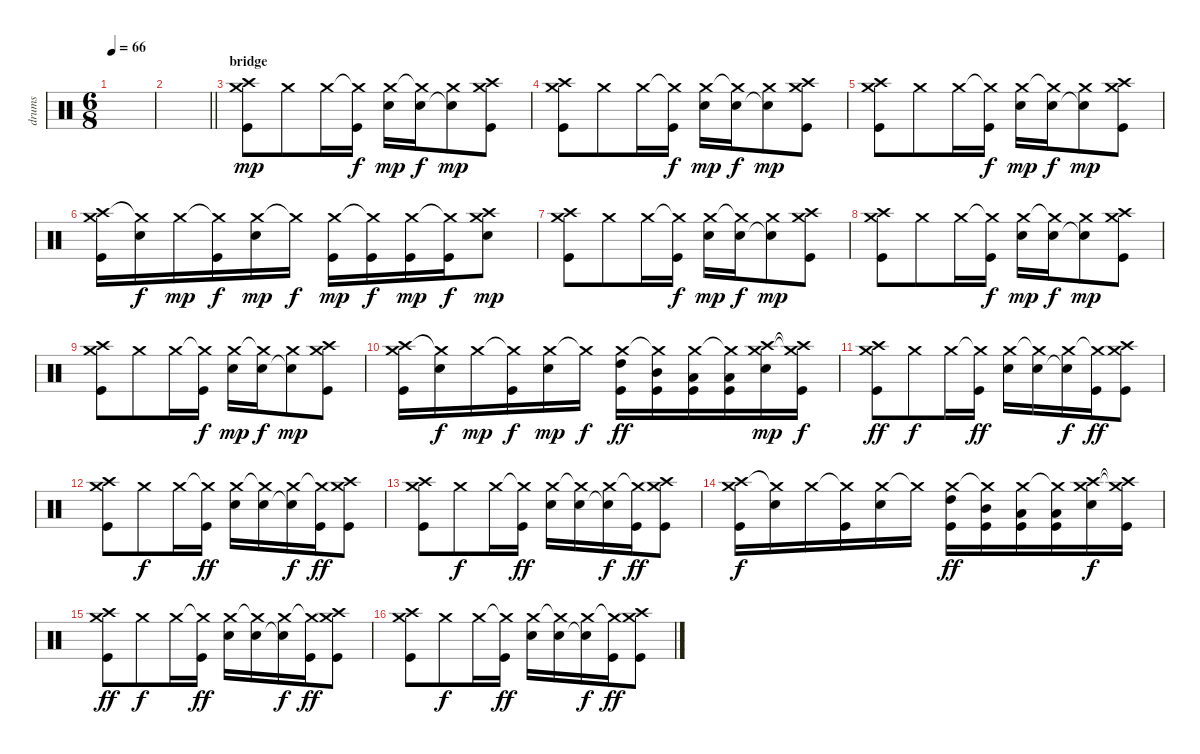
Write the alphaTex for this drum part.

\track ("drums" "drums") {instrument percussion}
\staff {score}
\articulation defaults
\ts (6 8)
\tempo 66
\clef neutral
\ks c
|
\barLineRight lightlight
|
\section ("" "bridge")
("Crash high (hit)" "Crash medium (hit)" "Kick (hit)").8{dy mp} "Crash medium (hit)".8 "Crash medium (hit)".16 ("Crash medium (hit)"{t} "Kick (hit)").16{dy f} ("Crash medium (hit)" "Electric Snare (hit)").16{dy mp} ("Crash medium (hit)"{t} "Electric Snare (hit)").16{dy f} ("Crash medium (hit)" "Electric Snare (hit)"{t}).8{dy mp} ("Crash high (hit)" "Crash medium (hit)" "Kick (hit)").8 |
("Crash high (hit)" "Crash medium (hit)" "Kick (hit)").8 "Crash medium (hit)".8 "Crash medium (hit)".16 ("Crash medium (hit)"{t} "Kick (hit)").16{dy f} ("Crash medium (hit)" "Electric Snare (hit)").16{dy mp} ("Crash medium (hit)"{t} "Electric Snare (hit)").16{dy f} ("Crash medium (hit)" "Electric Snare (hit)"{t}).8{dy mp} ("Crash high (hit)" "Crash medium (hit)" "Kick (hit)").8 |
("Crash high (hit)" "Crash medium (hit)" "Kick (hit)").8 "Crash medium (hit)".8 "Crash medium (hit)".16 ("Crash medium (hit)"{t} "Kick (hit)").16{dy f} ("Crash medium (hit)" "Electric Snare (hit)").16{dy mp} ("Crash medium (hit)"{t} "Electric Snare (hit)").16{dy f} ("Crash medium (hit)" "Electric Snare (hit)"{t}).8{dy mp} ("Crash high (hit)" "Crash medium (hit)" "Kick (hit)").8 |
("Crash high (hit)" "Crash medium (hit)" "Kick (hit)").16 ("Crash medium (hit)"{t} "Electric Snare (hit)").16{dy f} "Crash medium (hit)".16{dy mp} ("Crash medium (hit)"{t} "Kick (hit)").16{dy f} ("Crash medium (hit)" "Electric Snare (hit)").16{dy mp} "Crash medium (hit)"{t}.16{dy f} ("Crash medium (hit)" "Kick (hit)").16{dy mp} ("Crash medium (hit)"{t} "Kick (hit)").16{dy f} ("Crash medium (hit)" "Kick (hit)").16{dy mp} ("Crash medium (hit)"{t} "Kick (hit)").16{dy f} ("Crash high (hit)" "Crash medium (hit)" "Electric Snare (hit)").8{dy mp} |
("Crash high (hit)" "Crash medium (hit)" "Kick (hit)").8 "Crash medium (hit)".8 "Crash medium (hit)".16 ("Crash medium (hit)"{t} "Kick (hit)").16{dy f} ("Crash medium (hit)" "Electric Snare (hit)").16{dy mp} ("Crash medium (hit)"{t} "Electric Snare (hit)").16{dy f} ("Crash medium (hit)" "Electric Snare (hit)"{t}).8{dy mp} ("Crash high (hit)" "Crash medium (hit)" "Kick (hit)").8 |
("Crash high (hit)" "Crash medium (hit)" "Kick (hit)").8 "Crash medium (hit)".8 "Crash medium (hit)".16 ("Crash medium (hit)"{t} "Kick (hit)").16{dy f} ("Crash medium (hit)" "Electric Snare (hit)").16{dy mp} ("Crash medium (hit)"{t} "Electric Snare (hit)").16{dy f} ("Crash medium (hit)" "Electric Snare (hit)"{t}).8{dy mp} ("Crash high (hit)" "Crash medium (hit)" "Kick (hit)").8 |
("Crash high (hit)" "Crash medium (hit)" "Kick (hit)").8 "Crash medium (hit)".8 "Crash medium (hit)".16 ("Crash medium (hit)"{t} "Kick (hit)").16{dy f} ("Crash medium (hit)" "Electric Snare (hit)").16{dy mp} ("Crash medium (hit)"{t} "Electric Snare (hit)").16{dy f} ("Crash medium (hit)" "Electric Snare (hit)"{t}).8{dy mp} ("Crash high (hit)" "Crash medium (hit)" "Kick (hit)").8 |
("Crash high (hit)" "Crash medium (hit)" "Kick (hit)").16 ("Crash medium (hit)"{t} "Electric Snare (hit)").16{dy f} "Crash medium (hit)".16{dy mp} ("Crash medium (hit)"{t} "Kick (hit)").16{dy f} ("Crash medium (hit)" "Electric Snare (hit)").16{dy mp} "Crash medium (hit)"{t}.16{dy f} ("Crash medium (hit)" "High Tom (hit)" "Kick (hit)").16{dy ff} ("Crash medium (hit)"{t} "Mid Tom (hit)" "Kick (hit)").16 ("Crash medium (hit)" "Low Tom (hit)" "Kick (hit)").16 ("Crash medium (hit)"{t} "Low Floor Tom (hit)" "Kick (hit)").16 ("Crash high (hit)" "Crash medium (hit)" "Electric Snare (hit)").16{dy mp} ("Crash high (hit)"{t} "Crash medium (hit)"{t} "Kick (hit)").16{dy f} |
("Crash high (hit)" "Crash medium (hit)" "Kick (hit)").8{dy ff} "Crash medium (hit)".8{dy f} "Crash medium (hit)".16 ("Crash medium (hit)"{t} "Kick (hit)").16{dy ff} ("Crash medium (hit)" "Electric Snare (hit)").16 ("Crash medium (hit)"{t} "Electric Snare (hit)").16 ("Crash medium (hit)" "Electric Snare (hit)"{t}).16{dy f} ("Crash medium (hit)"{t} "Kick (hit)").16{dy ff} ("Crash high (hit)" "Crash medium (hit)" "Kick (hit)").8 |
("Crash high (hit)" "Crash medium (hit)" "Kick (hit)").8 "Crash medium (hit)".8{dy f} "Crash medium (hit)".16 ("Crash medium (hit)"{t} "Kick (hit)").16{dy ff} ("Crash medium (hit)" "Electric Snare (hit)").16 ("Crash medium (hit)"{t} "Electric Snare (hit)").16 ("Crash medium (hit)" "Electric Snare (hit)"{t}).16{dy f} ("Crash medium (hit)"{t} "Kick (hit)").16{dy ff} ("Crash high (hit)" "Crash medium (hit)" "Kick (hit)").8 |
("Crash high (hit)" "Crash medium (hit)" "Kick (hit)").8 "Crash medium (hit)".8{dy f} "Crash medium (hit)".16 ("Crash medium (hit)"{t} "Kick (hit)").16{dy ff} ("Crash medium (hit)" "Electric Snare (hit)").16 ("Crash medium (hit)"{t} "Electric Snare (hit)").16 ("Crash medium (hit)" "Electric Snare (hit)"{t}).16{dy f} ("Crash medium (hit)"{t} "Kick (hit)").16{dy ff} ("Crash high (hit)" "Crash medium (hit)" "Kick (hit)").8 |
("Crash high (hit)" "Crash medium (hit)" "Kick (hit)").16{dy f} ("Crash medium (hit)"{t} "Electric Snare (hit)").16 "Crash medium (hit)".16 ("Crash medium (hit)"{t} "Kick (hit)").16 ("Crash medium (hit)" "Electric Snare (hit)").16 "Crash medium (hit)"{t}.16 ("Crash medium (hit)" "High Tom (hit)" "Kick (hit)").16{dy ff} ("Crash medium (hit)"{t} "Mid Tom (hit)" "Kick (hit)").16 ("Crash medium (hit)" "Low Tom (hit)" "Kick (hit)").16 ("Crash medium (hit)"{t} "Low Floor Tom (hit)" "Kick (hit)").16 ("Crash high (hit)" "Crash medium (hit)" "Electric Snare (hit)").16{dy f} ("Crash high (hit)"{t} "Crash medium (hit)"{t} "Kick (hit)").16 |
("Crash high (hit)" "Crash medium (hit)" "Kick (hit)").8{dy ff} "Crash medium (hit)".8{dy f} "Crash medium (hit)".16 ("Crash medium (hit)"{t} "Kick (hit)").16{dy ff} ("Crash medium (hit)" "Electric Snare (hit)").16 ("Crash medium (hit)"{t} "Electric Snare (hit)").16 ("Crash medium (hit)" "Electric Snare (hit)"{t}).16{dy f} ("Crash medium (hit)"{t} "Kick (hit)").16{dy ff} ("Crash high (hit)" "Crash medium (hit)" "Kick (hit)").8 |
("Crash high (hit)" "Crash medium (hit)" "Kick (hit)").8 "Crash medium (hit)".8{dy f} "Crash medium (hit)".16 ("Crash medium (hit)"{t} "Kick (hit)").16{dy ff} ("Crash medium (hit)" "Electric Snare (hit)").16 ("Crash medium (hit)"{t} "Electric Snare (hit)").16 ("Crash medium (hit)" "Electric Snare (hit)"{t}).16{dy f} ("Crash medium (hit)"{t} "Kick (hit)").16{dy ff} ("Crash high (hit)" "Crash medium (hit)" "Kick (hit)").8
